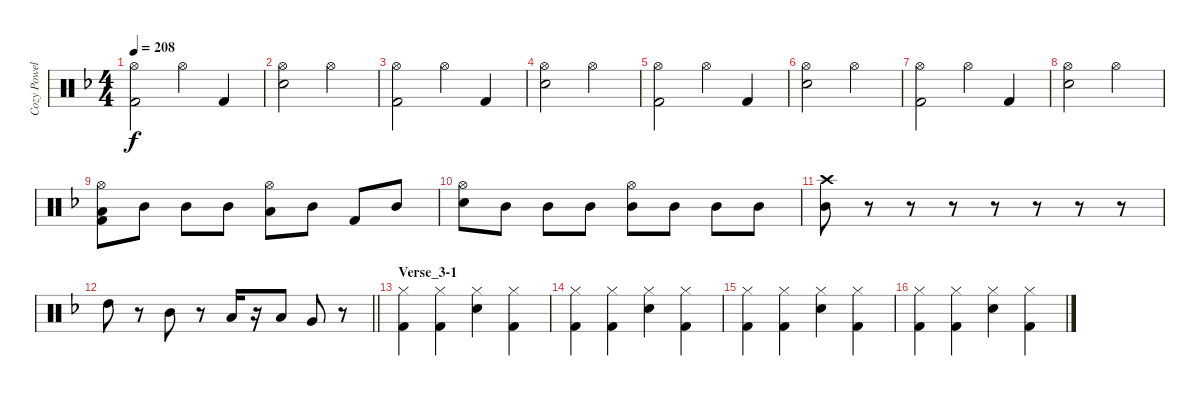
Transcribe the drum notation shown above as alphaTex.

\track ("Cozy Powell" "Cozy Powel") {instrument percussion}
\staff {score}
\articulation defaults
\ts (4 4)
\tempo 208
\clef neutral
\ks f
("Hi-Hat (open)" "Kick (hit) 2").2{dy f} "Hi-Hat (open)".4 "Kick (hit) 2".4 |
("Hi-Hat (open)" "Snare (hit) 2").2 "Hi-Hat (open)".2 |
("Hi-Hat (open)" "Kick (hit) 2").2 "Hi-Hat (open)".4 "Kick (hit) 2".4 |
("Hi-Hat (open)" "Snare (hit) 2").2 "Hi-Hat (open)".2 |
("Hi-Hat (open)" "Kick (hit) 2").2 "Hi-Hat (open)".4 "Kick (hit) 2".4 |
("Hi-Hat (open)" "Snare (hit) 2").2 "Hi-Hat (open)".2 |
("Hi-Hat (open)" "Kick (hit) 2").2 "Hi-Hat (open)".4 "Kick (hit) 2".4 |
("Hi-Hat (open)" "Snare (hit) 2").2 "Hi-Hat (open)".2 |
("Hi-Hat (open)" "Kick (hit) 2" "Low Tom (hit)").8 "Mid Tom (hit)".8 "Mid Tom (hit)".8 "Mid Tom (hit)".8 ("Hi-Hat (open)" "Low Tom (hit)").8 "Mid Tom (hit)".8 "Kick (hit) 2".8 "Mid Tom (hit)".8 |
("Hi-Hat (open)" "Snare (hit) 2").8 "Mid Tom (hit)".8 "Mid Tom (hit)".8 "Mid Tom (hit)".8 ("Hi-Hat (open)" "Mid Tom (hit)").8 "Mid Tom (hit)".8 "Mid Tom (hit)".8 "Mid Tom (hit)".8 |
("Mid Tom (hit)" "Crash high (hit)").8 r.8 r.8 r.8 r.8 r.8 r.8 r.8 |
\barLineRight lightlight "High Tom (hit)".8
r.8 "Mid Tom (hit)".8 r.8 "Low Tom (hit)".16 r.16 "Low Tom (hit)".8 "Very Low Tom (hit)".8 r.8 |
\section ("" "Verse_3-1")
("Hi-Hat (closed)" "Kick (hit) 2").4 ("Hi-Hat (closed)" "Kick (hit) 2").4 ("Hi-Hat (closed)" "Snare (hit) 2").4 ("Hi-Hat (closed)" "Kick (hit) 2").4 |
("Hi-Hat (closed)" "Kick (hit) 2").4 ("Hi-Hat (closed)" "Kick (hit) 2").4 ("Hi-Hat (closed)" "Snare (hit) 2").4 ("Hi-Hat (closed)" "Kick (hit) 2").4 |
("Hi-Hat (closed)" "Kick (hit) 2").4 ("Hi-Hat (closed)" "Kick (hit) 2").4 ("Hi-Hat (closed)" "Snare (hit) 2").4 ("Hi-Hat (closed)" "Kick (hit) 2").4 |
("Hi-Hat (closed)" "Kick (hit) 2").4 ("Hi-Hat (closed)" "Kick (hit) 2").4 ("Hi-Hat (closed)" "Snare (hit) 2").4 ("Hi-Hat (closed)" "Kick (hit) 2").4
